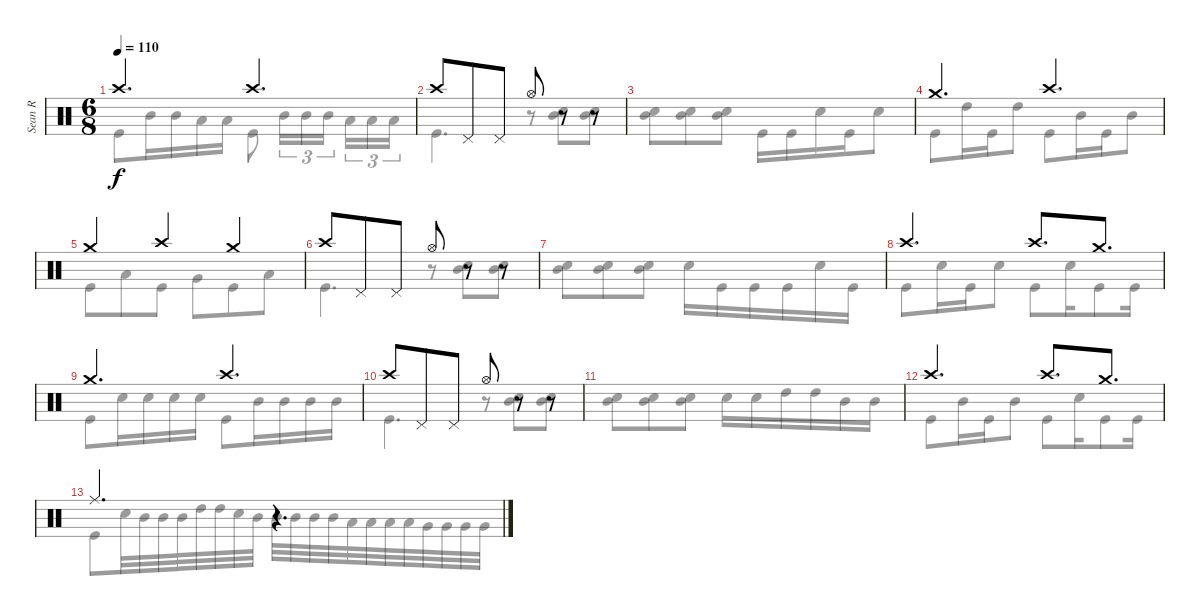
\track ("Sean R" "Sean R") {instrument percussion}
\staff {score}
\articulation defaults
\voice
\ts (6 8)
\tempo 110
\clef neutral
\ks c "Crash high (hit)".4{d dy f} "Crash high (hit)".4{d}
|
"Crash high (hit)".8 "Pedal Hi-Hat (hit)".8 "Pedal Hi-Hat (hit)".8 "Hi-Hat (open)".8 r.8 r.8 |
|
"Crash medium (hit)".4{d} "Crash high (hit)".4{d} |
"Crash medium (hit)".4 "Crash high (hit)".4 "Crash medium (hit)".4 |
"Crash high (hit)".8 "Pedal Hi-Hat (hit)".8 "Pedal Hi-Hat (hit)".8 "Hi-Hat (open)".8 r.8 r.8 |
|
"Crash high (hit)".4{d} "Crash high (hit)".8{d} "Crash medium (hit)".8{d} |
"Crash medium (hit)".4{d} "Crash high (hit)".4{d} |
"Crash high (hit)".8 "Pedal Hi-Hat (hit)".8 "Pedal Hi-Hat (hit)".8 "Hi-Hat (open)".8 r.8 r.8 |
|
"Crash high (hit)".4{d volume 0} "Crash high (hit)".8{d} "Crash medium (hit)".8{d} |
"Ride (middle)".4{d} r.4{d} |
\voice
\clef neutral
\ottava regular
\simile none
\ks c "Kick (hit)".8{dy f} "Mid Tom (hit)".16 "Mid Tom (hit)".16 "Low Tom (hit)".16 "Low Tom (hit)".16 "Kick (hit)".8 "Mid Tom (hit)".16{tu (3 2)} "Mid Tom (hit)".16{tu (3 2)} "Mid Tom (hit)".16{tu (3 2) beam splitsecondary} "Low Tom (hit)".16{tu (3 2)} "Low Tom (hit)".16{tu (3 2)} "Low Tom (hit)".16{tu (3 2)}
|
"Kick (hit)".4{d} r.8 ("Mid Tom (hit)" "Snare (hit) 2").8 ("Mid Tom (hit)" "Snare (hit) 2").8 |
("Mid Tom (hit)" "Snare (hit) 2").8 ("Mid Tom (hit)" "Snare (hit) 2").8 ("Mid Tom (hit)" "Snare (hit) 2").8 "Kick (hit)".16 "Kick (hit)".16 "Snare (hit) 2".16 "Kick (hit)".16 "Snare (hit) 2".8 |
"Kick (hit)".8 "High Tom (hit)".16 "Kick (hit)".16 "High Tom (hit)".8 "Kick (hit)".8 "Mid Tom (hit)".16 "Kick (hit)".16 "Mid Tom (hit)".8 |
"Kick (hit)".8 "Low Tom (hit)".8 "Kick (hit)".8 "Very Low Tom (hit)".8 "Kick (hit)".8 "Low Tom (hit)".8 |
"Kick (hit)".4{d} r.8 ("Mid Tom (hit)" "Snare (hit) 2").8 ("Mid Tom (hit)" "Snare (hit) 2").8 |
("Mid Tom (hit)" "Snare (hit) 2").8 ("Mid Tom (hit)" "Snare (hit) 2").8 ("Mid Tom (hit)" "Snare (hit) 2").8 "Snare (hit) 2".16 "Kick (hit)".16 "Kick (hit)".16 "Kick (hit)".16 "Snare (hit) 2".16 "Kick (hit)".16 |
"Kick (hit)".8 "Snare (hit) 2".16 "Kick (hit)".16 "Snare (hit) 2".8 "Kick (hit)".8 "Snare (hit) 2".16 "Kick (hit)".8 "Kick (hit)".16 |
"Kick (hit)".8 "Snare (hit) 2".16 "Snare (hit) 2".16 "Snare (hit) 2".16 "Snare (hit) 2".16 "Kick (hit)".8 "Mid Tom (hit)".16 "Mid Tom (hit)".16 "Mid Tom (hit)".16 "Mid Tom (hit)".16 |
"Kick (hit)".4{d} r.8 ("Mid Tom (hit)" "Snare (hit) 2").8 ("Mid Tom (hit)" "Snare (hit) 2").8 |
("Mid Tom (hit)" "Snare (hit) 2").8 ("Mid Tom (hit)" "Snare (hit) 2").8 ("Mid Tom (hit)" "Snare (hit) 2").8 "Snare (hit) 2".16 "Snare (hit) 2".16 "High Tom (hit)".16 "High Tom (hit)".16 "Mid Tom (hit)".16 "Mid Tom (hit)".16 |
"Kick (hit)".8 "Mid Tom (hit)".16 "Kick (hit)".16 "Mid Tom (hit)".8 "Kick (hit)".8 "Snare (hit) 2".16 "Kick (hit)".8 "Kick (hit)".16 |
"Kick (hit)".8 "Snare (hit) 2".32 "Mid Tom (hit)".32 "Mid Tom (hit)".32 "Mid Tom (hit)".32 "High Tom (hit)".32 "High Tom (hit)".32 "Snare (hit) 2".32 "Mid Tom (hit)".32 "Mid Tom (hit)".32 "Mid Tom (hit)".32 "Mid Tom (hit)".32 "Mid Tom (hit)".32 "Low Tom (hit)".32 "Low Tom (hit)".32 "Low Tom (hit)".32 "Low Tom (hit)".32 "Very Low Tom (hit)".32 "Very Low Tom (hit)".32 "Very Low Tom (hit)".32 "Very Low Tom (hit)".32 |
